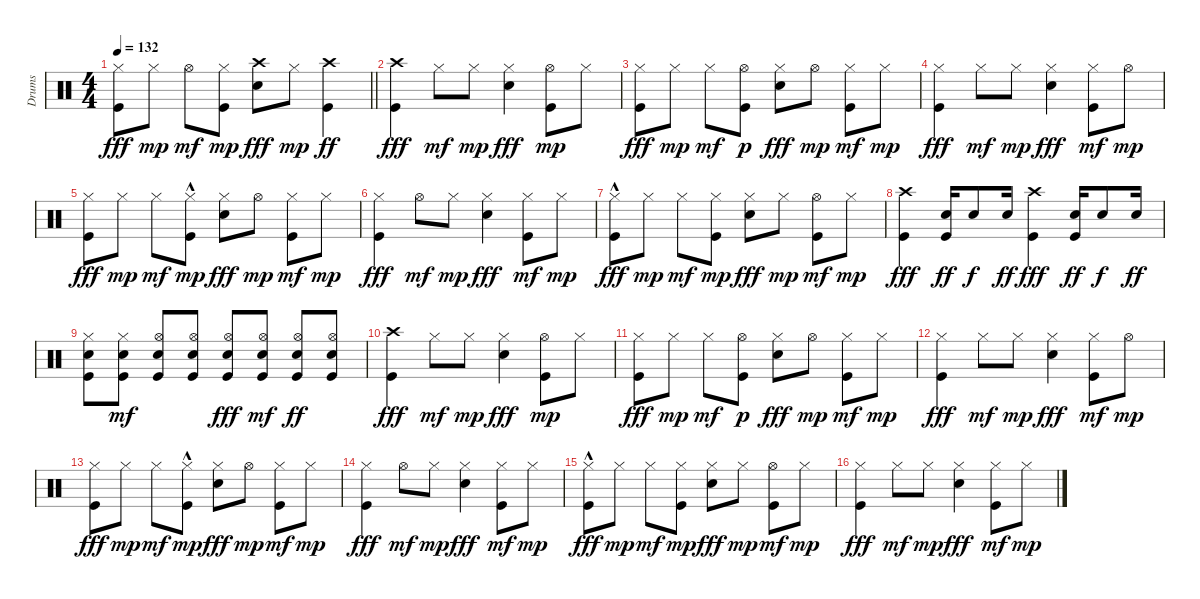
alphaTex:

\track ("Drums" "Drums") {instrument percussion}
\staff {score}
\articulation defaults
\ts (4 4)
\tempo 132
\clef neutral
\barLineRight lightlight
\ks c
("Hi-Hat (closed)" "Kick (hit)").8{dy fff} "Hi-Hat (closed)".8{dy mp} "Hi-Hat (open)".8{dy mf} ("Hi-Hat (closed)" "Kick (hit)").8{dy mp} ("Crash high (hit)" "Snare (hit) 2").8{dy fff} "Hi-Hat (closed)".8{dy mp} ("Crash high (hit)" "Kick (hit)").4{dy ff} |
("Crash high (hit)" "Kick (hit)").4{dy fff} "Hi-Hat (closed)".8{dy mf} "Hi-Hat (closed)".8{dy mp} ("Hi-Hat (closed)" "Snare (hit) 2").4{dy fff} ("Hi-Hat (open)" "Kick (hit)").8{dy mp} "Hi-Hat (closed)".8 |
("Hi-Hat (closed)" "Kick (hit)").8{dy fff} "Hi-Hat (closed)".8{dy mp} "Hi-Hat (closed)".8{dy mf} ("Hi-Hat (open)" "Kick (hit)").8{dy p} ("Hi-Hat (closed)" "Snare (hit) 2").8{dy fff} "Hi-Hat (open)".8{dy mp} ("Hi-Hat (closed)" "Kick (hit)").8{dy mf} "Hi-Hat (closed)".8{dy mp} |
("Hi-Hat (closed)" "Kick (hit)").4{dy fff} "Hi-Hat (closed)".8{dy mf} "Hi-Hat (closed)".8{dy mp} ("Hi-Hat (closed)" "Snare (hit) 2").4{dy fff} ("Hi-Hat (closed)" "Kick (hit)").8{dy mf} "Hi-Hat (open)".8{dy mp} |
("Hi-Hat (closed)" "Kick (hit)").8{dy fff} "Hi-Hat (closed)".8{dy mp} "Hi-Hat (closed)".8{dy mf} ("Hi-Hat (closed)" "Kick (hit)"{hac}).8{dy mp} ("Hi-Hat (closed)" "Snare (hit) 2").8{dy fff} "Hi-Hat (open)".8{dy mp} ("Hi-Hat (closed)" "Kick (hit)").8{dy mf} "Hi-Hat (closed)".8{dy mp} |
("Hi-Hat (closed)" "Kick (hit)").4{dy fff} "Hi-Hat (open)".8{dy mf} "Hi-Hat (closed)".8{dy mp} ("Hi-Hat (closed)" "Snare (hit) 2").4{dy fff} ("Hi-Hat (closed)" "Kick (hit)").8{dy mf} "Hi-Hat (closed)".8{dy mp} |
("Hi-Hat (closed)" "Kick (hit)"{hac}).8{dy fff} "Hi-Hat (closed)".8{dy mp} "Hi-Hat (closed)".8{dy mf} ("Hi-Hat (closed)" "Kick (hit)").8{dy mp} ("Hi-Hat (closed)" "Snare (hit) 2").8{dy fff} "Hi-Hat (closed)".8{dy mp} ("Hi-Hat (open)" "Kick (hit)").8{dy mf} "Hi-Hat (closed)".8{dy mp} |
("Crash high (hit)" "Kick (hit)").4{dy fff} ("Snare (hit) 2" "Kick (hit)").16{dy ff} "Snare (hit) 2".8{dy f} "Snare (hit) 2".16{dy ff} ("Crash high (hit)" "Kick (hit)").4{dy fff} ("Snare (hit) 2" "Kick (hit)").16{dy ff} "Snare (hit) 2".8{dy f} "Snare (hit) 2".16{dy ff} |
("Hi-Hat (closed)" "Snare (hit) 2" "Kick (hit)").8 ("Hi-Hat (closed)" "Snare (hit) 2" "Kick (hit)").8{dy mf} ("Hi-Hat (open)" "Snare (hit) 2" "Kick (hit)").8 ("Hi-Hat (open)" "Snare (hit) 2" "Kick (hit)").8 ("Hi-Hat (open)" "Snare (hit) 2" "Kick (hit)").8{dy fff} ("Hi-Hat (open)" "Snare (hit) 2" "Kick (hit)").8{dy mf} ("Hi-Hat (open)" "Snare (hit) 2" "Kick (hit)").8{dy ff} ("Hi-Hat (open)" "Snare (hit) 2" "Kick (hit)").8 |
("Crash high (hit)" "Kick (hit)").4{dy fff} "Hi-Hat (closed)".8{dy mf} "Hi-Hat (closed)".8{dy mp} ("Hi-Hat (closed)" "Snare (hit) 2").4{dy fff} ("Hi-Hat (open)" "Kick (hit)").8{dy mp} "Hi-Hat (closed)".8 |
("Hi-Hat (closed)" "Kick (hit)").8{dy fff} "Hi-Hat (closed)".8{dy mp} "Hi-Hat (closed)".8{dy mf} ("Hi-Hat (open)" "Kick (hit)").8{dy p} ("Hi-Hat (closed)" "Snare (hit) 2").8{dy fff} "Hi-Hat (open)".8{dy mp} ("Hi-Hat (closed)" "Kick (hit)").8{dy mf} "Hi-Hat (closed)".8{dy mp} |
("Hi-Hat (closed)" "Kick (hit)").4{dy fff} "Hi-Hat (closed)".8{dy mf} "Hi-Hat (closed)".8{dy mp} ("Hi-Hat (closed)" "Snare (hit) 2").4{dy fff} ("Hi-Hat (closed)" "Kick (hit)").8{dy mf} "Hi-Hat (open)".8{dy mp} |
("Hi-Hat (closed)" "Kick (hit)").8{dy fff} "Hi-Hat (closed)".8{dy mp} "Hi-Hat (closed)".8{dy mf} ("Hi-Hat (closed)" "Kick (hit)"{hac}).8{dy mp} ("Hi-Hat (closed)" "Snare (hit) 2").8{dy fff} "Hi-Hat (open)".8{dy mp} ("Hi-Hat (closed)" "Kick (hit)").8{dy mf} "Hi-Hat (closed)".8{dy mp} |
("Hi-Hat (closed)" "Kick (hit)").4{dy fff} "Hi-Hat (open)".8{dy mf} "Hi-Hat (closed)".8{dy mp} ("Hi-Hat (closed)" "Snare (hit) 2").4{dy fff} ("Hi-Hat (closed)" "Kick (hit)").8{dy mf} "Hi-Hat (closed)".8{dy mp} |
("Hi-Hat (closed)" "Kick (hit)"{hac}).8{dy fff} "Hi-Hat (closed)".8{dy mp} "Hi-Hat (closed)".8{dy mf} ("Hi-Hat (closed)" "Kick (hit)").8{dy mp} ("Hi-Hat (closed)" "Snare (hit) 2").8{dy fff} "Hi-Hat (closed)".8{dy mp} ("Hi-Hat (open)" "Kick (hit)").8{dy mf} "Hi-Hat (closed)".8{dy mp} |
("Hi-Hat (closed)" "Kick (hit)").4{dy fff} "Hi-Hat (closed)".8{dy mf} "Hi-Hat (closed)".8{dy mp} ("Hi-Hat (closed)" "Snare (hit) 2").4{dy fff} ("Hi-Hat (closed)" "Kick (hit)").8{dy mf} "Hi-Hat (closed)".8{dy mp}
